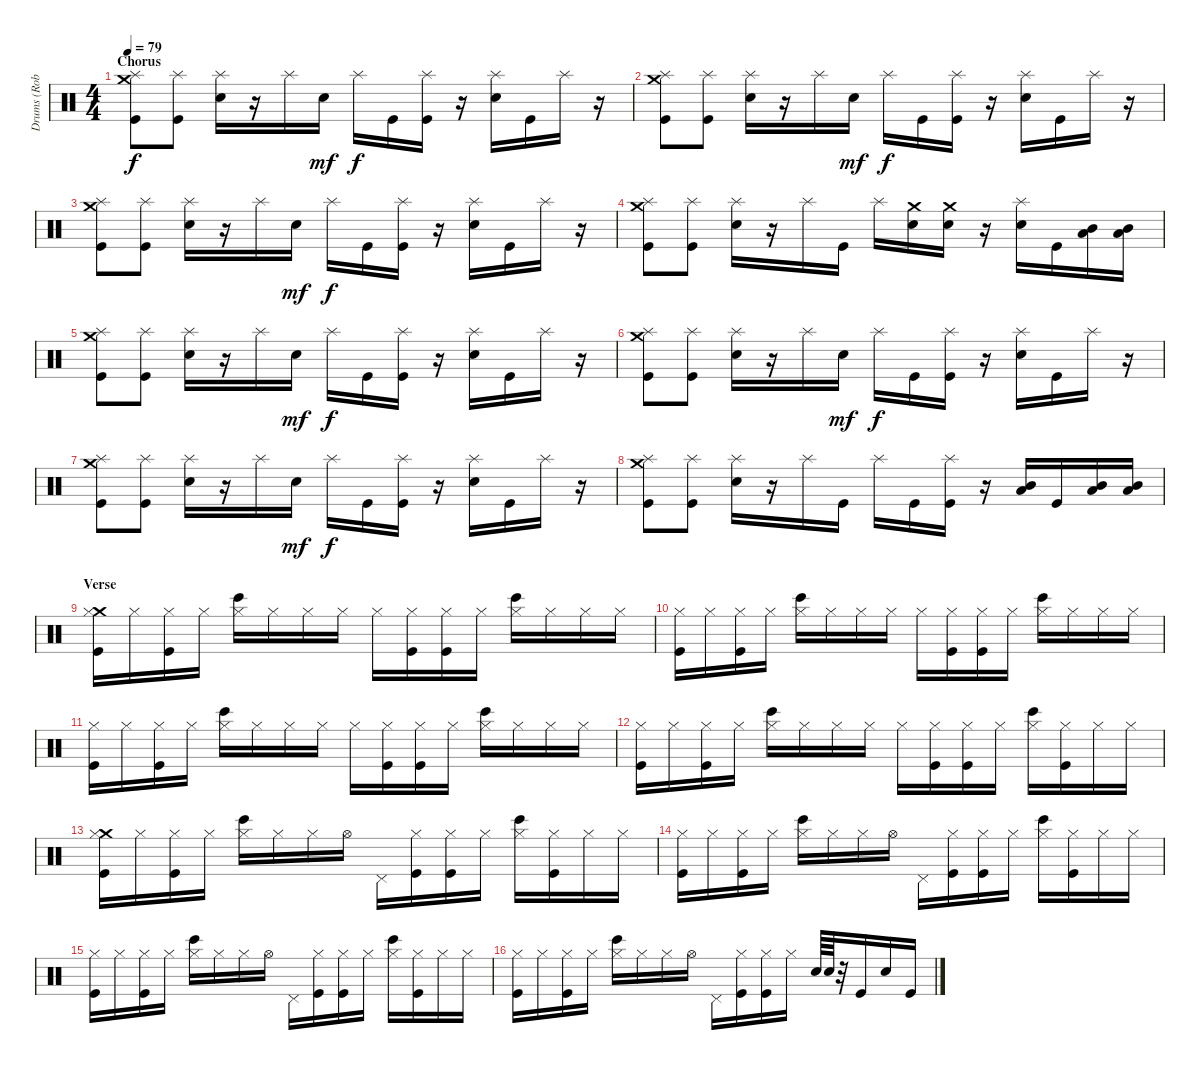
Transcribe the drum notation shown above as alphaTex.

\track ("Drums (Rob Bourdon)" "Drums (Rob") {instrument percussion}
\staff {score}
\articulation defaults
\ts (4 4)
\section ("" "Chorus")
\tempo 79
\clef neutral
\ks c
("Crash medium (hit)" "Splash (hit)" "Kick (hit)").8{dy f} ("Splash (hit)" "Kick (hit)").8 ("Splash (hit)" "Electric Snare (hit)").16 r.16 "Splash (hit)".16 "Electric Snare (hit)".16{dy mf} "Splash (hit)".16{dy f} "Kick (hit)".16 ("Splash (hit)" "Kick (hit)").16 r.16 ("Splash (hit)" "Electric Snare (hit)").16 "Kick (hit)".16 "Splash (hit)".16 r.16 |
("Crash medium (hit)" "Splash (hit)" "Kick (hit)").8 ("Splash (hit)" "Kick (hit)").8 ("Splash (hit)" "Electric Snare (hit)").16 r.16 "Splash (hit)".16 "Electric Snare (hit)".16{dy mf} "Splash (hit)".16{dy f} "Kick (hit)".16 ("Splash (hit)" "Kick (hit)").16 r.16 ("Splash (hit)" "Electric Snare (hit)").16 "Kick (hit)".16 "Splash (hit)".16 r.16 |
("Crash medium (hit)" "Splash (hit)" "Kick (hit)").8 ("Splash (hit)" "Kick (hit)").8 ("Splash (hit)" "Electric Snare (hit)").16 r.16 "Splash (hit)".16 "Electric Snare (hit)".16{dy mf} "Splash (hit)".16{dy f} "Kick (hit)".16 ("Splash (hit)" "Kick (hit)").16 r.16 ("Splash (hit)" "Electric Snare (hit)").16 "Kick (hit)".16 "Splash (hit)".16 r.16 |
("Crash medium (hit)" "Splash (hit)" "Kick (hit)").8 ("Splash (hit)" "Kick (hit)").8 ("Splash (hit)" "Electric Snare (hit)").16 r.16 "Splash (hit)".16 "Kick (hit)".16 "Splash (hit)".16 ("Crash medium (hit)" "Electric Snare (hit)").16 ("Crash medium (hit)" "Electric Snare (hit)").16 r.16 ("Splash (hit)" "Electric Snare (hit)").16 "Kick (hit)".16 ("Mid Tom (hit)" "Low Tom (hit)").16 ("Mid Tom (hit)" "Low Tom (hit)").16 |
("Crash medium (hit)" "Splash (hit)" "Kick (hit)").8 ("Splash (hit)" "Kick (hit)").8 ("Splash (hit)" "Electric Snare (hit)").16 r.16 "Splash (hit)".16 "Electric Snare (hit)".16{dy mf} "Splash (hit)".16{dy f} "Kick (hit)".16 ("Splash (hit)" "Kick (hit)").16 r.16 ("Splash (hit)" "Electric Snare (hit)").16 "Kick (hit)".16 "Splash (hit)".16 r.16 |
("Crash medium (hit)" "Splash (hit)" "Kick (hit)").8 ("Splash (hit)" "Kick (hit)").8 ("Splash (hit)" "Electric Snare (hit)").16 r.16 "Splash (hit)".16 "Electric Snare (hit)".16{dy mf} "Splash (hit)".16{dy f} "Kick (hit)".16 ("Splash (hit)" "Kick (hit)").16 r.16 ("Splash (hit)" "Electric Snare (hit)").16 "Kick (hit)".16 "Splash (hit)".16 r.16 |
("Crash medium (hit)" "Splash (hit)" "Kick (hit)").8 ("Splash (hit)" "Kick (hit)").8 ("Splash (hit)" "Electric Snare (hit)").16 r.16 "Splash (hit)".16 "Electric Snare (hit)".16{dy mf} "Splash (hit)".16{dy f} "Kick (hit)".16 ("Splash (hit)" "Kick (hit)").16 r.16 ("Splash (hit)" "Electric Snare (hit)").16 "Kick (hit)".16 "Splash (hit)".16 r.16 |
("Crash medium (hit)" "Splash (hit)" "Kick (hit)").8 ("Splash (hit)" "Kick (hit)").8 ("Splash (hit)" "Electric Snare (hit)").16 r.16 "Splash (hit)".16 "Kick (hit)".16 "Splash (hit)".16 "Kick (hit)".16 ("Splash (hit)" "Kick (hit)").16 r.16 ("Mid Tom (hit)" "Low Tom (hit)").16 "Kick (hit)".16 ("Mid Tom (hit)" "Low Tom (hit)").16 ("Mid Tom (hit)" "Low Tom (hit)").16 |
\section ("" "Verse")
("Crash medium (hit)" "Hi-Hat (closed)" "Kick (hit)").16 "Hi-Hat (closed)".16 ("Hi-Hat (closed)" "Kick (hit)").16 "Hi-Hat (closed)".16 ("Hi-Hat (closed)" "Bongo High (hit)").16 "Hi-Hat (closed)".16 "Hi-Hat (closed)".16 "Hi-Hat (closed)".16 "Hi-Hat (closed)".16 ("Hi-Hat (closed)" "Kick (hit)").16 ("Hi-Hat (closed)" "Kick (hit)").16 "Hi-Hat (closed)".16 ("Hi-Hat (closed)" "Bongo High (hit)").16 "Hi-Hat (closed)".16 "Hi-Hat (closed)".16 "Hi-Hat (closed)".16 |
("Hi-Hat (closed)" "Kick (hit)").16 "Hi-Hat (closed)".16 ("Hi-Hat (closed)" "Kick (hit)").16 "Hi-Hat (closed)".16 ("Hi-Hat (closed)" "Bongo High (hit)").16 "Hi-Hat (closed)".16 "Hi-Hat (closed)".16 "Hi-Hat (closed)".16 "Hi-Hat (closed)".16 ("Hi-Hat (closed)" "Kick (hit)").16 ("Hi-Hat (closed)" "Kick (hit)").16 "Hi-Hat (closed)".16 ("Hi-Hat (closed)" "Bongo High (hit)").16 "Hi-Hat (closed)".16 "Hi-Hat (closed)".16 "Hi-Hat (closed)".16 |
("Hi-Hat (closed)" "Kick (hit)").16 "Hi-Hat (closed)".16 ("Hi-Hat (closed)" "Kick (hit)").16 "Hi-Hat (closed)".16 ("Hi-Hat (closed)" "Bongo High (hit)").16 "Hi-Hat (closed)".16 "Hi-Hat (closed)".16 "Hi-Hat (closed)".16 "Hi-Hat (closed)".16 ("Hi-Hat (closed)" "Kick (hit)").16 ("Hi-Hat (closed)" "Kick (hit)").16 "Hi-Hat (closed)".16 ("Hi-Hat (closed)" "Bongo High (hit)").16 "Hi-Hat (closed)".16 "Hi-Hat (closed)".16 "Hi-Hat (closed)".16 |
("Hi-Hat (closed)" "Kick (hit)").16 "Hi-Hat (closed)".16 ("Hi-Hat (closed)" "Kick (hit)").16 "Hi-Hat (closed)".16 ("Hi-Hat (closed)" "Bongo High (hit)").16 "Hi-Hat (closed)".16 "Hi-Hat (closed)".16 "Hi-Hat (closed)".16 "Hi-Hat (closed)".16 ("Hi-Hat (closed)" "Kick (hit)").16 ("Hi-Hat (closed)" "Kick (hit)").16 "Hi-Hat (closed)".16 ("Hi-Hat (closed)" "Bongo High (hit)").16 ("Hi-Hat (closed)" "Kick (hit)").16 "Hi-Hat (closed)".16 "Hi-Hat (closed)".16 |
("Crash medium (hit)" "Hi-Hat (closed)" "Kick (hit)").16 "Hi-Hat (closed)".16 ("Hi-Hat (closed)" "Kick (hit)").16 "Hi-Hat (closed)".16 ("Hi-Hat (closed)" "Bongo High (hit)").16 "Hi-Hat (closed)".16 "Hi-Hat (closed)".16 "Hi-Hat (open)".16 "Pedal Hi-Hat (hit)".16 ("Hi-Hat (closed)" "Kick (hit)").16 ("Hi-Hat (closed)" "Kick (hit)").16 "Hi-Hat (closed)".16 ("Hi-Hat (closed)" "Bongo High (hit)").16 ("Hi-Hat (closed)" "Kick (hit)").16 "Hi-Hat (closed)".16 "Hi-Hat (closed)".16 |
("Hi-Hat (closed)" "Kick (hit)").16 "Hi-Hat (closed)".16 ("Hi-Hat (closed)" "Kick (hit)").16 "Hi-Hat (closed)".16 ("Hi-Hat (closed)" "Bongo High (hit)").16 "Hi-Hat (closed)".16 "Hi-Hat (closed)".16 "Hi-Hat (open)".16 "Pedal Hi-Hat (hit)".16 ("Hi-Hat (closed)" "Kick (hit)").16 ("Hi-Hat (closed)" "Kick (hit)").16 "Hi-Hat (closed)".16 ("Hi-Hat (closed)" "Bongo High (hit)").16 ("Hi-Hat (closed)" "Kick (hit)").16 "Hi-Hat (closed)".16 "Hi-Hat (closed)".16 |
("Hi-Hat (closed)" "Kick (hit)").16 "Hi-Hat (closed)".16 ("Hi-Hat (closed)" "Kick (hit)").16 "Hi-Hat (closed)".16 ("Hi-Hat (closed)" "Bongo High (hit)").16 "Hi-Hat (closed)".16 "Hi-Hat (closed)".16 "Hi-Hat (open)".16 "Pedal Hi-Hat (hit)".16 ("Hi-Hat (closed)" "Kick (hit)").16 ("Hi-Hat (closed)" "Kick (hit)").16 "Hi-Hat (closed)".16 ("Hi-Hat (closed)" "Bongo High (hit)").16 ("Hi-Hat (closed)" "Kick (hit)").16 "Hi-Hat (closed)".16 "Hi-Hat (closed)".16 |
("Hi-Hat (closed)" "Kick (hit)").16 "Hi-Hat (closed)".16 ("Hi-Hat (closed)" "Kick (hit)").16 "Hi-Hat (closed)".16 ("Hi-Hat (closed)" "Bongo High (hit)").16 "Hi-Hat (closed)".16 "Hi-Hat (closed)".16 "Hi-Hat (open)".16 "Pedal Hi-Hat (hit)".16 ("Hi-Hat (closed)" "Kick (hit)").16 ("Hi-Hat (closed)" "Kick (hit)").16 "Hi-Hat (closed)".16 "Electric Snare (hit)".64 "Electric Snare (hit)".64 r.32 "Kick (hit)".16 "Electric Snare (hit)".16 "Kick (hit)".16
